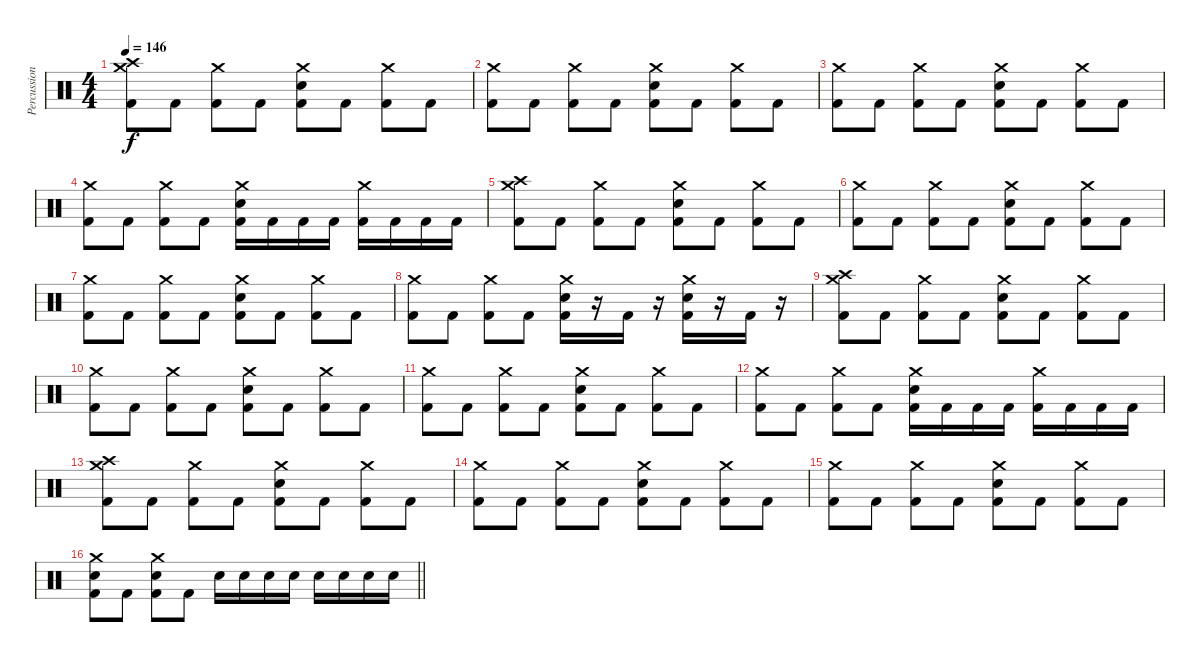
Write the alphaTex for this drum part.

\track ("Percussion" "Percussion") {instrument percussion}
\staff {score}
\articulation defaults
\ts (4 4)
\tempo 146
\clef neutral
\ks c
("Crash high (hit)" "Crash medium (hit)" "Kick (hit) 2").8{dy f} "Kick (hit) 2".8 ("Crash medium (hit)" "Kick (hit) 2").8 "Kick (hit) 2".8 ("Crash medium (hit)" "Snare (hit) 2" "Kick (hit) 2").8 "Kick (hit) 2".8 ("Crash medium (hit)" "Kick (hit) 2").8 "Kick (hit) 2".8 |
("Crash medium (hit)" "Kick (hit) 2").8 "Kick (hit) 2".8 ("Crash medium (hit)" "Kick (hit) 2").8 "Kick (hit) 2".8 ("Crash medium (hit)" "Snare (hit) 2" "Kick (hit) 2").8 "Kick (hit) 2".8 ("Crash medium (hit)" "Kick (hit) 2").8 "Kick (hit) 2".8 |
("Crash medium (hit)" "Kick (hit) 2").8 "Kick (hit) 2".8 ("Crash medium (hit)" "Kick (hit) 2").8 "Kick (hit) 2".8 ("Crash medium (hit)" "Snare (hit) 2" "Kick (hit) 2").8 "Kick (hit) 2".8 ("Crash medium (hit)" "Kick (hit) 2").8 "Kick (hit) 2".8 |
("Crash medium (hit)" "Kick (hit) 2").8 "Kick (hit) 2".8 ("Crash medium (hit)" "Kick (hit) 2").8 "Kick (hit) 2".8 ("Crash medium (hit)" "Snare (hit) 2" "Kick (hit) 2").16 "Kick (hit) 2".16 "Kick (hit) 2".16 "Kick (hit) 2".16 ("Crash medium (hit)" "Kick (hit) 2").16 "Kick (hit) 2".16 "Kick (hit) 2".16 "Kick (hit) 2".16 |
("Crash high (hit)" "Crash medium (hit)" "Kick (hit) 2").8 "Kick (hit) 2".8 ("Crash medium (hit)" "Kick (hit) 2").8 "Kick (hit) 2".8 ("Crash medium (hit)" "Snare (hit) 2" "Kick (hit) 2").8 "Kick (hit) 2".8 ("Crash medium (hit)" "Kick (hit) 2").8 "Kick (hit) 2".8 |
("Crash medium (hit)" "Kick (hit) 2").8 "Kick (hit) 2".8 ("Crash medium (hit)" "Kick (hit) 2").8 "Kick (hit) 2".8 ("Crash medium (hit)" "Snare (hit) 2" "Kick (hit) 2").8 "Kick (hit) 2".8 ("Crash medium (hit)" "Kick (hit) 2").8 "Kick (hit) 2".8 |
("Crash medium (hit)" "Kick (hit) 2").8 "Kick (hit) 2".8 ("Crash medium (hit)" "Kick (hit) 2").8 "Kick (hit) 2".8 ("Crash medium (hit)" "Snare (hit) 2" "Kick (hit) 2").8 "Kick (hit) 2".8 ("Crash medium (hit)" "Kick (hit) 2").8 "Kick (hit) 2".8 |
("Crash medium (hit)" "Kick (hit) 2").8 "Kick (hit) 2".8 ("Crash medium (hit)" "Kick (hit) 2").8 "Kick (hit) 2".8 ("Crash medium (hit)" "Snare (hit) 2" "Kick (hit) 2").16 r.16 "Kick (hit) 2".16 r.16 ("Crash medium (hit)" "Snare (hit) 2" "Kick (hit) 2").16 r.16 "Kick (hit) 2".16 r.16 |
("Crash high (hit)" "Crash medium (hit)" "Kick (hit) 2").8 "Kick (hit) 2".8 ("Crash medium (hit)" "Kick (hit) 2").8 "Kick (hit) 2".8 ("Crash medium (hit)" "Snare (hit) 2" "Kick (hit) 2").8 "Kick (hit) 2".8 ("Crash medium (hit)" "Kick (hit) 2").8 "Kick (hit) 2".8 |
("Crash medium (hit)" "Kick (hit) 2").8 "Kick (hit) 2".8 ("Crash medium (hit)" "Kick (hit) 2").8 "Kick (hit) 2".8 ("Crash medium (hit)" "Snare (hit) 2" "Kick (hit) 2").8 "Kick (hit) 2".8 ("Crash medium (hit)" "Kick (hit) 2").8 "Kick (hit) 2".8 |
("Crash medium (hit)" "Kick (hit) 2").8 "Kick (hit) 2".8 ("Crash medium (hit)" "Kick (hit) 2").8 "Kick (hit) 2".8 ("Crash medium (hit)" "Snare (hit) 2" "Kick (hit) 2").8 "Kick (hit) 2".8 ("Crash medium (hit)" "Kick (hit) 2").8 "Kick (hit) 2".8 |
("Crash medium (hit)" "Kick (hit) 2").8 "Kick (hit) 2".8 ("Crash medium (hit)" "Kick (hit) 2").8 "Kick (hit) 2".8 ("Crash medium (hit)" "Snare (hit) 2" "Kick (hit) 2").16 "Kick (hit) 2".16 "Kick (hit) 2".16 "Kick (hit) 2".16 ("Crash medium (hit)" "Kick (hit) 2").16 "Kick (hit) 2".16 "Kick (hit) 2".16 "Kick (hit) 2".16 |
("Crash high (hit)" "Crash medium (hit)" "Kick (hit) 2").8 "Kick (hit) 2".8 ("Crash medium (hit)" "Kick (hit) 2").8 "Kick (hit) 2".8 ("Crash medium (hit)" "Snare (hit) 2" "Kick (hit) 2").8 "Kick (hit) 2".8 ("Crash medium (hit)" "Kick (hit) 2").8 "Kick (hit) 2".8 |
("Crash medium (hit)" "Kick (hit) 2").8 "Kick (hit) 2".8 ("Crash medium (hit)" "Kick (hit) 2").8 "Kick (hit) 2".8 ("Crash medium (hit)" "Snare (hit) 2" "Kick (hit) 2").8 "Kick (hit) 2".8 ("Crash medium (hit)" "Kick (hit) 2").8 "Kick (hit) 2".8 |
("Crash medium (hit)" "Kick (hit) 2").8 "Kick (hit) 2".8 ("Crash medium (hit)" "Kick (hit) 2").8 "Kick (hit) 2".8 ("Crash medium (hit)" "Snare (hit) 2" "Kick (hit) 2").8 "Kick (hit) 2".8 ("Crash medium (hit)" "Kick (hit) 2").8 "Kick (hit) 2".8 |
\barLineRight lightlight
("Crash medium (hit)" "Snare (hit) 2" "Kick (hit) 2").8 "Kick (hit) 2".8 ("Crash medium (hit)" "Snare (hit) 2" "Kick (hit) 2").8 "Kick (hit) 2".8 "Snare (hit) 2".16 "Snare (hit) 2".16 "Snare (hit) 2".16 "Snare (hit) 2".16 "Snare (hit) 2".16 "Snare (hit) 2".16 "Snare (hit) 2".16 "Snare (hit) 2".16
